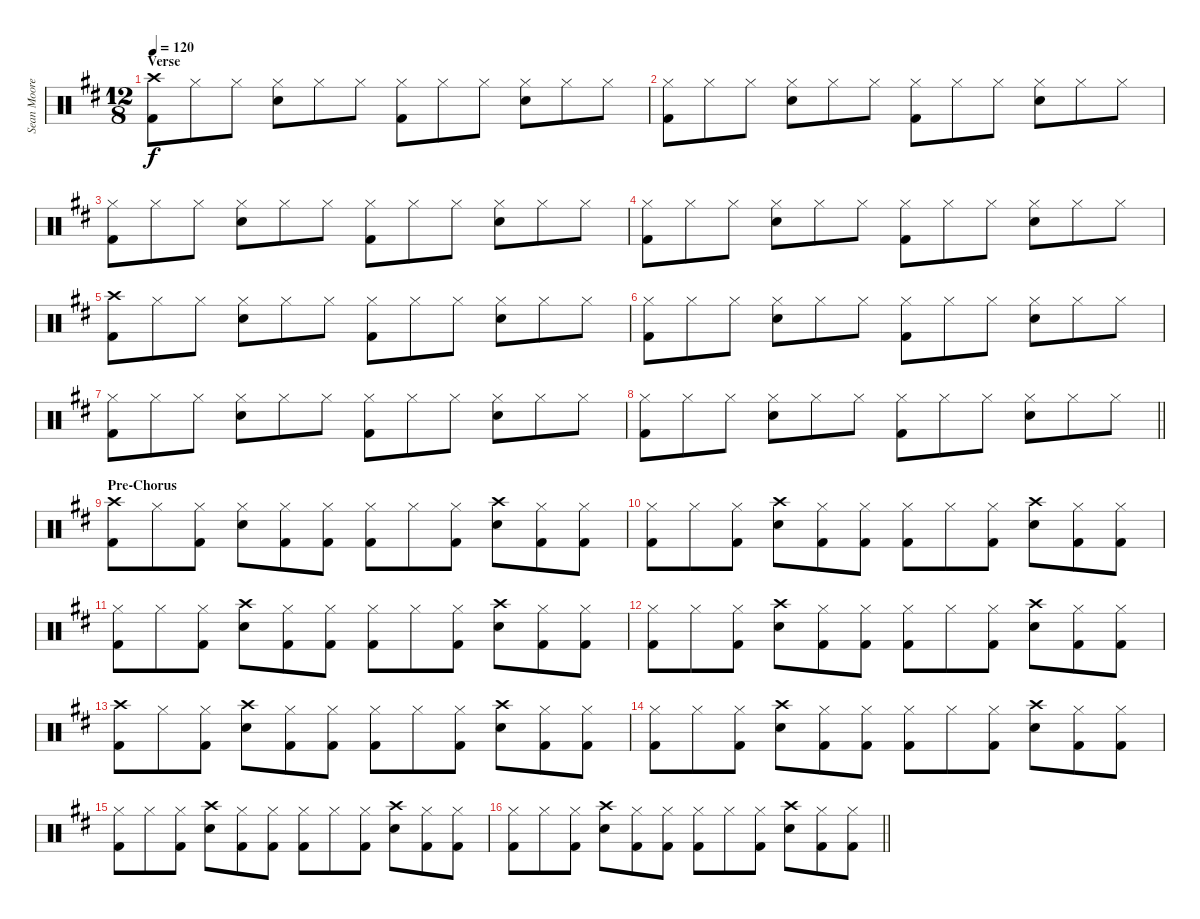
\track ("Sean Moore (Drums)" "Sean Moore") {instrument percussion}
\staff {score}
\articulation defaults
\ts (12 8)
\section ("" "Verse")
\tempo 120
\clef neutral
\ks d
("Crash high (hit)" "Kick (hit) 2").8{dy f} "Hi-Hat (closed)".8 "Hi-Hat (closed)".8 ("Hi-Hat (closed)" "Electric Snare (hit)").8 "Hi-Hat (closed)".8 "Hi-Hat (closed)".8 ("Hi-Hat (closed)" "Kick (hit) 2").8 "Hi-Hat (closed)".8 "Hi-Hat (closed)".8 ("Hi-Hat (closed)" "Electric Snare (hit)").8 "Hi-Hat (closed)".8 "Hi-Hat (closed)".8 |
("Hi-Hat (closed)" "Kick (hit) 2").8 "Hi-Hat (closed)".8 "Hi-Hat (closed)".8 ("Hi-Hat (closed)" "Electric Snare (hit)").8 "Hi-Hat (closed)".8 "Hi-Hat (closed)".8 ("Hi-Hat (closed)" "Kick (hit) 2").8 "Hi-Hat (closed)".8 "Hi-Hat (closed)".8 ("Hi-Hat (closed)" "Electric Snare (hit)").8 "Hi-Hat (closed)".8 "Hi-Hat (closed)".8 |
("Hi-Hat (closed)" "Kick (hit) 2").8 "Hi-Hat (closed)".8 "Hi-Hat (closed)".8 ("Hi-Hat (closed)" "Electric Snare (hit)").8 "Hi-Hat (closed)".8 "Hi-Hat (closed)".8 ("Hi-Hat (closed)" "Kick (hit) 2").8 "Hi-Hat (closed)".8 "Hi-Hat (closed)".8 ("Hi-Hat (closed)" "Electric Snare (hit)").8 "Hi-Hat (closed)".8 "Hi-Hat (closed)".8 |
("Hi-Hat (closed)" "Kick (hit) 2").8 "Hi-Hat (closed)".8 "Hi-Hat (closed)".8 ("Hi-Hat (closed)" "Electric Snare (hit)").8 "Hi-Hat (closed)".8 "Hi-Hat (closed)".8 ("Hi-Hat (closed)" "Kick (hit) 2").8 "Hi-Hat (closed)".8 "Hi-Hat (closed)".8 ("Hi-Hat (closed)" "Electric Snare (hit)").8 "Hi-Hat (closed)".8 "Hi-Hat (closed)".8 |
("Crash high (hit)" "Kick (hit) 2").8 "Hi-Hat (closed)".8 "Hi-Hat (closed)".8 ("Hi-Hat (closed)" "Electric Snare (hit)").8 "Hi-Hat (closed)".8 "Hi-Hat (closed)".8 ("Hi-Hat (closed)" "Kick (hit) 2").8 "Hi-Hat (closed)".8 "Hi-Hat (closed)".8 ("Hi-Hat (closed)" "Electric Snare (hit)").8 "Hi-Hat (closed)".8 "Hi-Hat (closed)".8 |
("Hi-Hat (closed)" "Kick (hit) 2").8 "Hi-Hat (closed)".8 "Hi-Hat (closed)".8 ("Hi-Hat (closed)" "Electric Snare (hit)").8 "Hi-Hat (closed)".8 "Hi-Hat (closed)".8 ("Hi-Hat (closed)" "Kick (hit) 2").8 "Hi-Hat (closed)".8 "Hi-Hat (closed)".8 ("Hi-Hat (closed)" "Electric Snare (hit)").8 "Hi-Hat (closed)".8 "Hi-Hat (closed)".8 |
("Hi-Hat (closed)" "Kick (hit) 2").8 "Hi-Hat (closed)".8 "Hi-Hat (closed)".8 ("Hi-Hat (closed)" "Electric Snare (hit)").8 "Hi-Hat (closed)".8 "Hi-Hat (closed)".8 ("Hi-Hat (closed)" "Kick (hit) 2").8 "Hi-Hat (closed)".8 "Hi-Hat (closed)".8 ("Hi-Hat (closed)" "Electric Snare (hit)").8 "Hi-Hat (closed)".8 "Hi-Hat (closed)".8 |
\barLineRight lightlight
("Hi-Hat (closed)" "Kick (hit) 2").8 "Hi-Hat (closed)".8 "Hi-Hat (closed)".8 ("Hi-Hat (closed)" "Electric Snare (hit)").8 "Hi-Hat (closed)".8 "Hi-Hat (closed)".8 ("Hi-Hat (closed)" "Kick (hit) 2").8 "Hi-Hat (closed)".8 "Hi-Hat (closed)".8 ("Hi-Hat (closed)" "Electric Snare (hit)").8 "Hi-Hat (closed)".8 "Hi-Hat (closed)".8 |
\section ("" "Pre-Chorus")
("Crash high (hit)" "Kick (hit) 2").8 "Hi-Hat (closed)".8 ("Hi-Hat (closed)" "Kick (hit) 2").8 ("Hi-Hat (closed)" "Electric Snare (hit)").8 ("Hi-Hat (closed)" "Kick (hit) 2").8 ("Hi-Hat (closed)" "Kick (hit) 2").8 ("Hi-Hat (closed)" "Kick (hit) 2").8 "Hi-Hat (closed)".8 ("Hi-Hat (closed)" "Kick (hit) 2").8 ("Crash high (hit)" "Electric Snare (hit)").8 ("Hi-Hat (closed)" "Kick (hit) 2").8 ("Hi-Hat (closed)" "Kick (hit) 2").8 |
("Hi-Hat (closed)" "Kick (hit) 2").8 "Hi-Hat (closed)".8 ("Hi-Hat (closed)" "Kick (hit) 2").8 ("Crash high (hit)" "Electric Snare (hit)").8 ("Hi-Hat (closed)" "Kick (hit) 2").8 ("Hi-Hat (closed)" "Kick (hit) 2").8 ("Hi-Hat (closed)" "Kick (hit) 2").8 "Hi-Hat (closed)".8 ("Hi-Hat (closed)" "Kick (hit) 2").8 ("Crash high (hit)" "Electric Snare (hit)").8 ("Hi-Hat (closed)" "Kick (hit) 2").8 ("Hi-Hat (closed)" "Kick (hit) 2").8 |
("Hi-Hat (closed)" "Kick (hit) 2").8 "Hi-Hat (closed)".8 ("Hi-Hat (closed)" "Kick (hit) 2").8 ("Crash high (hit)" "Electric Snare (hit)").8 ("Hi-Hat (closed)" "Kick (hit) 2").8 ("Hi-Hat (closed)" "Kick (hit) 2").8 ("Hi-Hat (closed)" "Kick (hit) 2").8 "Hi-Hat (closed)".8 ("Hi-Hat (closed)" "Kick (hit) 2").8 ("Crash high (hit)" "Electric Snare (hit)").8 ("Hi-Hat (closed)" "Kick (hit) 2").8 ("Hi-Hat (closed)" "Kick (hit) 2").8 |
("Hi-Hat (closed)" "Kick (hit) 2").8 "Hi-Hat (closed)".8 ("Hi-Hat (closed)" "Kick (hit) 2").8 ("Crash high (hit)" "Electric Snare (hit)").8 ("Hi-Hat (closed)" "Kick (hit) 2").8 ("Hi-Hat (closed)" "Kick (hit) 2").8 ("Hi-Hat (closed)" "Kick (hit) 2").8 "Hi-Hat (closed)".8 ("Hi-Hat (closed)" "Kick (hit) 2").8 ("Crash high (hit)" "Electric Snare (hit)").8 ("Hi-Hat (closed)" "Kick (hit) 2").8 ("Hi-Hat (closed)" "Kick (hit) 2").8 |
("Crash high (hit)" "Kick (hit) 2").8 "Hi-Hat (closed)".8 ("Hi-Hat (closed)" "Kick (hit) 2").8 ("Crash high (hit)" "Electric Snare (hit)").8 ("Hi-Hat (closed)" "Kick (hit) 2").8 ("Hi-Hat (closed)" "Kick (hit) 2").8 ("Hi-Hat (closed)" "Kick (hit) 2").8 "Hi-Hat (closed)".8 ("Hi-Hat (closed)" "Kick (hit) 2").8 ("Crash high (hit)" "Electric Snare (hit)").8 ("Hi-Hat (closed)" "Kick (hit) 2").8 ("Hi-Hat (closed)" "Kick (hit) 2").8 |
("Hi-Hat (closed)" "Kick (hit) 2").8 "Hi-Hat (closed)".8 ("Hi-Hat (closed)" "Kick (hit) 2").8 ("Crash high (hit)" "Electric Snare (hit)").8 ("Hi-Hat (closed)" "Kick (hit) 2").8 ("Hi-Hat (closed)" "Kick (hit) 2").8 ("Hi-Hat (closed)" "Kick (hit) 2").8 "Hi-Hat (closed)".8 ("Hi-Hat (closed)" "Kick (hit) 2").8 ("Crash high (hit)" "Electric Snare (hit)").8 ("Hi-Hat (closed)" "Kick (hit) 2").8 ("Hi-Hat (closed)" "Kick (hit) 2").8 |
("Hi-Hat (closed)" "Kick (hit) 2").8 "Hi-Hat (closed)".8 ("Hi-Hat (closed)" "Kick (hit) 2").8 ("Crash high (hit)" "Electric Snare (hit)").8 ("Hi-Hat (closed)" "Kick (hit) 2").8 ("Hi-Hat (closed)" "Kick (hit) 2").8 ("Hi-Hat (closed)" "Kick (hit) 2").8 "Hi-Hat (closed)".8 ("Hi-Hat (closed)" "Kick (hit) 2").8 ("Crash high (hit)" "Electric Snare (hit)").8 ("Hi-Hat (closed)" "Kick (hit) 2").8 ("Hi-Hat (closed)" "Kick (hit) 2").8 |
\barLineRight lightlight
("Hi-Hat (closed)" "Kick (hit) 2").8 "Hi-Hat (closed)".8 ("Hi-Hat (closed)" "Kick (hit) 2").8 ("Crash high (hit)" "Electric Snare (hit)").8 ("Hi-Hat (closed)" "Kick (hit) 2").8 ("Hi-Hat (closed)" "Kick (hit) 2").8 ("Hi-Hat (closed)" "Kick (hit) 2").8 "Hi-Hat (closed)".8 ("Hi-Hat (closed)" "Kick (hit) 2").8 ("Crash high (hit)" "Electric Snare (hit)").8 ("Hi-Hat (closed)" "Kick (hit) 2").8 ("Hi-Hat (closed)" "Kick (hit) 2").8
